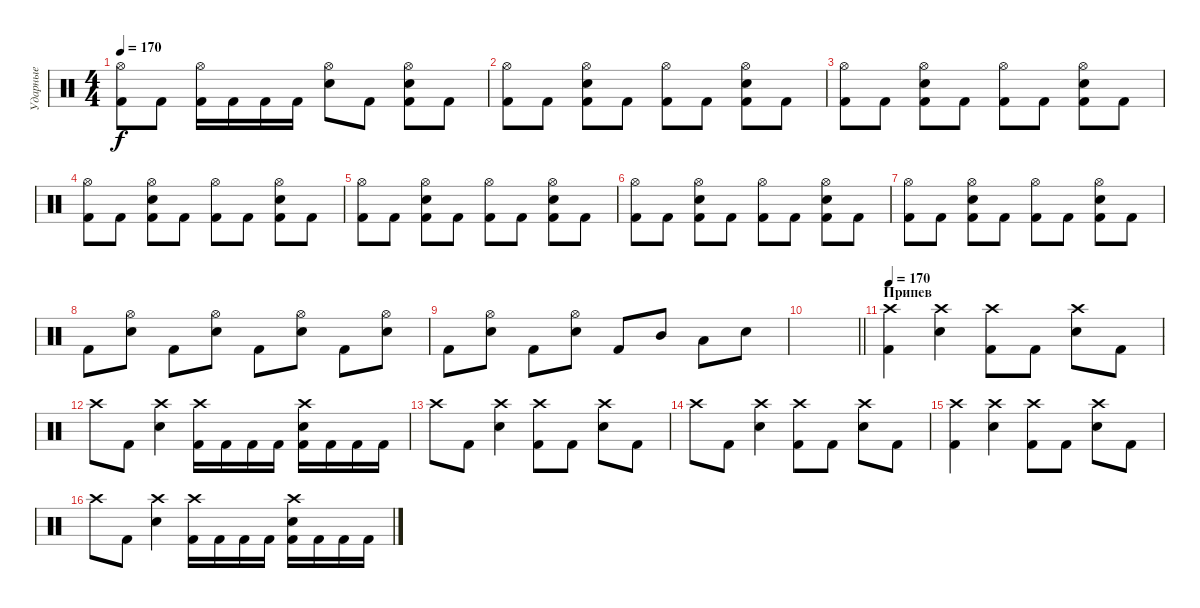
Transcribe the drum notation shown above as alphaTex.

\track ("Ударные" "Ударные") {instrument percussion}
\staff {score}
\articulation defaults
\ts (4 4)
\tempo 170
\clef neutral
\ks c
("Hi-Hat (open)" "Kick (hit) 2").8{dy f} "Kick (hit) 2".8 ("Hi-Hat (open)" "Kick (hit) 2").16 "Kick (hit) 2".16 "Kick (hit) 2".16 "Kick (hit) 2".16 ("Hi-Hat (open)" "Electric Snare (hit)").8 "Kick (hit) 2".8 ("Hi-Hat (open)" "Electric Snare (hit)" "Kick (hit) 2").8 "Kick (hit) 2".8 |
("Hi-Hat (open)" "Kick (hit) 2").8 "Kick (hit) 2".8 ("Hi-Hat (open)" "Electric Snare (hit)" "Kick (hit) 2").8 "Kick (hit) 2".8 ("Hi-Hat (open)" "Kick (hit) 2").8 "Kick (hit) 2".8 ("Hi-Hat (open)" "Electric Snare (hit)" "Kick (hit) 2").8 "Kick (hit) 2".8 |
("Hi-Hat (open)" "Kick (hit) 2").8 "Kick (hit) 2".8 ("Hi-Hat (open)" "Electric Snare (hit)" "Kick (hit) 2").8 "Kick (hit) 2".8 ("Hi-Hat (open)" "Kick (hit) 2").8 "Kick (hit) 2".8 ("Hi-Hat (open)" "Electric Snare (hit)" "Kick (hit) 2").8 "Kick (hit) 2".8 |
("Hi-Hat (open)" "Kick (hit) 2").8 "Kick (hit) 2".8 ("Hi-Hat (open)" "Electric Snare (hit)" "Kick (hit) 2").8 "Kick (hit) 2".8 ("Hi-Hat (open)" "Kick (hit) 2").8 "Kick (hit) 2".8 ("Hi-Hat (open)" "Electric Snare (hit)" "Kick (hit) 2").8 "Kick (hit) 2".8 |
("Hi-Hat (open)" "Kick (hit) 2").8 "Kick (hit) 2".8 ("Hi-Hat (open)" "Electric Snare (hit)" "Kick (hit) 2").8 "Kick (hit) 2".8 ("Hi-Hat (open)" "Kick (hit) 2").8 "Kick (hit) 2".8 ("Hi-Hat (open)" "Electric Snare (hit)" "Kick (hit) 2").8 "Kick (hit) 2".8 |
("Hi-Hat (open)" "Kick (hit) 2").8 "Kick (hit) 2".8 ("Hi-Hat (open)" "Electric Snare (hit)" "Kick (hit) 2").8 "Kick (hit) 2".8 ("Hi-Hat (open)" "Kick (hit) 2").8 "Kick (hit) 2".8 ("Hi-Hat (open)" "Electric Snare (hit)" "Kick (hit) 2").8 "Kick (hit) 2".8 |
("Hi-Hat (open)" "Kick (hit) 2").8 "Kick (hit) 2".8 ("Hi-Hat (open)" "Electric Snare (hit)" "Kick (hit) 2").8 "Kick (hit) 2".8 ("Hi-Hat (open)" "Kick (hit) 2").8 "Kick (hit) 2".8 ("Hi-Hat (open)" "Electric Snare (hit)" "Kick (hit) 2").8 "Kick (hit) 2".8 |
"Kick (hit) 2".8 ("Hi-Hat (open)" "Electric Snare (hit)").8 "Kick (hit) 2".8 ("Hi-Hat (open)" "Electric Snare (hit)").8 "Kick (hit) 2".8 ("Hi-Hat (open)" "Electric Snare (hit)").8 "Kick (hit) 2".8 ("Hi-Hat (open)" "Electric Snare (hit)").8 |
"Kick (hit) 2".8 ("Hi-Hat (open)" "Electric Snare (hit)").8 "Kick (hit) 2".8 ("Hi-Hat (open)" "Electric Snare (hit)").8 "Kick (hit) 2".8 "Mid Tom (hit)".8 "Low Tom (hit)".8 "Electric Snare (hit)".8 |
\barLineRight lightlight
|
\section ("" "Припев")
\tempo 170
("Crash high (hit)" "Kick (hit) 2").4 ("Crash high (hit)" "Electric Snare (hit)").4 ("Crash high (hit)" "Kick (hit) 2").8 "Kick (hit) 2".8 ("Crash high (hit)" "Electric Snare (hit)").8 "Kick (hit) 2".8 |
"Crash high (hit)".8 "Kick (hit) 2".8 ("Crash high (hit)" "Electric Snare (hit)").4 ("Crash high (hit)" "Kick (hit) 2").16 "Kick (hit) 2".16 "Kick (hit) 2".16 "Kick (hit) 2".16 ("Crash high (hit)" "Electric Snare (hit)" "Kick (hit) 2").16 "Kick (hit) 2".16 "Kick (hit) 2".16 "Kick (hit) 2".16 |
"Crash high (hit)".8 "Kick (hit) 2".8 ("Crash high (hit)" "Electric Snare (hit)").4 ("Crash high (hit)" "Kick (hit) 2").8 "Kick (hit) 2".8 ("Crash high (hit)" "Electric Snare (hit)").8 "Kick (hit) 2".8 |
"Crash high (hit)".8 "Kick (hit) 2".8 ("Crash high (hit)" "Electric Snare (hit)").4 ("Crash high (hit)" "Kick (hit) 2").8 "Kick (hit) 2".8 ("Crash high (hit)" "Electric Snare (hit)").8 "Kick (hit) 2".8 |
("Crash high (hit)" "Kick (hit) 2").4 ("Crash high (hit)" "Electric Snare (hit)").4 ("Crash high (hit)" "Kick (hit) 2").8 "Kick (hit) 2".8 ("Crash high (hit)" "Electric Snare (hit)").8 "Kick (hit) 2".8 |
"Crash high (hit)".8 "Kick (hit) 2".8 ("Crash high (hit)" "Electric Snare (hit)").4 ("Crash high (hit)" "Kick (hit) 2").16 "Kick (hit) 2".16 "Kick (hit) 2".16 "Kick (hit) 2".16 ("Crash high (hit)" "Electric Snare (hit)" "Kick (hit) 2").16 "Kick (hit) 2".16 "Kick (hit) 2".16 "Kick (hit) 2".16
